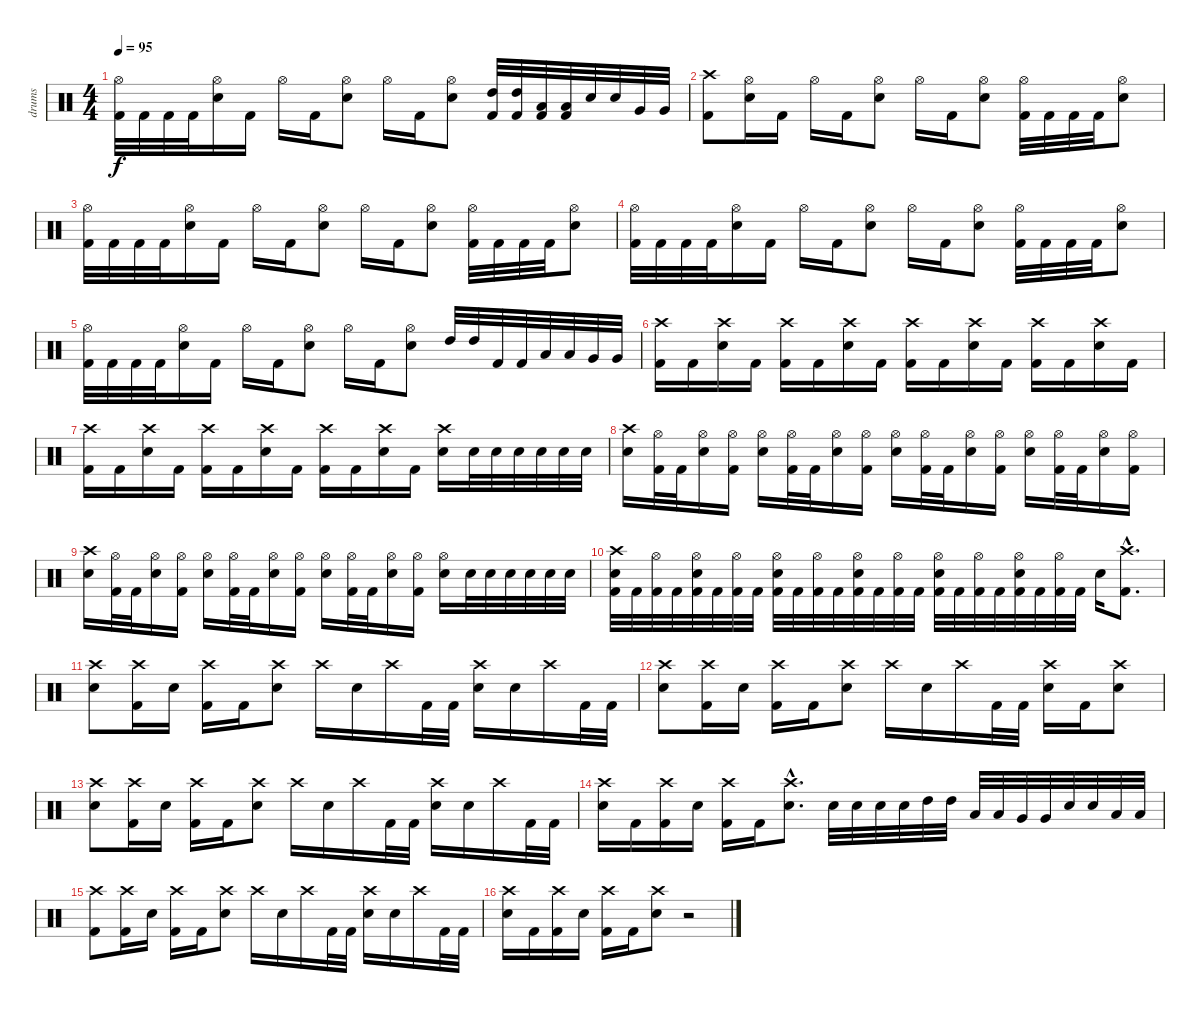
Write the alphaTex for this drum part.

\track ("drums" "drums") {instrument percussion}
\staff {score}
\articulation defaults
\ts (4 4)
\tempo 95
\clef neutral
\ks c
("Hi-Hat (open)" "Kick (hit) 2").32{dy f} "Kick (hit) 2".32 "Kick (hit) 2".32 "Kick (hit) 2".32 ("Hi-Hat (open)" "Electric Snare (hit)").16 "Kick (hit) 2".16 "Hi-Hat (open)".16 "Kick (hit) 2".16 ("Hi-Hat (open)" "Electric Snare (hit)").8 "Hi-Hat (open)".16 "Kick (hit) 2".16 ("Hi-Hat (open)" "Electric Snare (hit)").8 ("High Tom (hit)" "Kick (hit) 2").32 ("High Tom (hit)" "Kick (hit) 2").32 ("Low Tom (hit)" "Kick (hit) 2").32 ("Low Tom (hit)" "Kick (hit) 2").32 "Electric Snare (hit)".32 "Electric Snare (hit)".32 "Very Low Tom (hit)".32 "Very Low Tom (hit)".32 |
("Crash high (hit)" "Kick (hit) 2").8 ("Hi-Hat (open)" "Electric Snare (hit)").16 "Kick (hit) 2".16 "Hi-Hat (open)".16 "Kick (hit) 2".16 ("Hi-Hat (open)" "Electric Snare (hit)").8 "Hi-Hat (open)".16 "Kick (hit) 2".16 ("Hi-Hat (open)" "Electric Snare (hit)").8 ("Hi-Hat (open)" "Kick (hit) 2").32 "Kick (hit) 2".32 "Kick (hit) 2".32 "Kick (hit) 2".32 ("Hi-Hat (open)" "Electric Snare (hit)").8 |
("Hi-Hat (open)" "Kick (hit) 2").32 "Kick (hit) 2".32 "Kick (hit) 2".32 "Kick (hit) 2".32 ("Hi-Hat (open)" "Electric Snare (hit)").16 "Kick (hit) 2".16 "Hi-Hat (open)".16 "Kick (hit) 2".16 ("Hi-Hat (open)" "Electric Snare (hit)").8 "Hi-Hat (open)".16 "Kick (hit) 2".16 ("Hi-Hat (open)" "Electric Snare (hit)").8 ("Hi-Hat (open)" "Kick (hit) 2").32 "Kick (hit) 2".32 "Kick (hit) 2".32 "Kick (hit) 2".32 ("Hi-Hat (open)" "Electric Snare (hit)").8 |
("Hi-Hat (open)" "Kick (hit) 2").32 "Kick (hit) 2".32 "Kick (hit) 2".32 "Kick (hit) 2".32 ("Hi-Hat (open)" "Electric Snare (hit)").16 "Kick (hit) 2".16 "Hi-Hat (open)".16 "Kick (hit) 2".16 ("Hi-Hat (open)" "Electric Snare (hit)").8 "Hi-Hat (open)".16 "Kick (hit) 2".16 ("Hi-Hat (open)" "Electric Snare (hit)").8 ("Hi-Hat (open)" "Kick (hit) 2").32 "Kick (hit) 2".32 "Kick (hit) 2".32 "Kick (hit) 2".32 ("Hi-Hat (open)" "Electric Snare (hit)").8 |
("Hi-Hat (open)" "Kick (hit) 2").32 "Kick (hit) 2".32 "Kick (hit) 2".32 "Kick (hit) 2".32 ("Hi-Hat (open)" "Electric Snare (hit)").16 "Kick (hit) 2".16 "Hi-Hat (open)".16 "Kick (hit) 2".16 ("Hi-Hat (open)" "Electric Snare (hit)").8 "Hi-Hat (open)".16 "Kick (hit) 2".16 ("Hi-Hat (open)" "Electric Snare (hit)").8 "High Tom (hit)".32 "High Tom (hit)".32 "Kick (hit) 2".32 "Kick (hit) 2".32 "Low Tom (hit)".32 "Low Tom (hit)".32 "Very Low Tom (hit)".32 "Very Low Tom (hit)".32 |
\section ("" "")
("Crash high (hit)" "Kick (hit) 2").16 "Kick (hit) 2".16 ("Crash high (hit)" "Electric Snare (hit)").16 "Kick (hit) 2".16 ("Crash high (hit)" "Kick (hit) 2").16 "Kick (hit) 2".16 ("Crash high (hit)" "Electric Snare (hit)").16 "Kick (hit) 2".16 ("Crash high (hit)" "Kick (hit) 2").16 "Kick (hit) 2".16 ("Crash high (hit)" "Electric Snare (hit)").16 "Kick (hit) 2".16 ("Crash high (hit)" "Kick (hit) 2").16 "Kick (hit) 2".16 ("Crash high (hit)" "Electric Snare (hit)").16 "Kick (hit) 2".16 |
("Crash high (hit)" "Kick (hit) 2").16 "Kick (hit) 2".16 ("Crash high (hit)" "Electric Snare (hit)").16 "Kick (hit) 2".16 ("Crash high (hit)" "Kick (hit) 2").16 "Kick (hit) 2".16 ("Crash high (hit)" "Electric Snare (hit)").16 "Kick (hit) 2".16 ("Crash high (hit)" "Kick (hit) 2").16 "Kick (hit) 2".16 ("Crash high (hit)" "Electric Snare (hit)").16 "Kick (hit) 2".16 ("Crash high (hit)" "Electric Snare (hit)").16 "Electric Snare (hit)".32 "Electric Snare (hit)".32 "Electric Snare (hit)".32 "Electric Snare (hit)".32 "Electric Snare (hit)".32 "Electric Snare (hit)".32 |
("Crash high (hit)" "Electric Snare (hit)").16 ("Hi-Hat (open)" "Kick (hit) 2").32 "Kick (hit) 2".32 ("Hi-Hat (open)" "Electric Snare (hit)").16 ("Hi-Hat (open)" "Kick (hit) 2").16 ("Hi-Hat (open)" "Electric Snare (hit)").16 ("Hi-Hat (open)" "Kick (hit) 2").32 "Kick (hit) 2".32 ("Hi-Hat (open)" "Electric Snare (hit)").16 ("Hi-Hat (open)" "Kick (hit) 2").16 ("Hi-Hat (open)" "Electric Snare (hit)").16 ("Hi-Hat (open)" "Kick (hit) 2").32 "Kick (hit) 2".32 ("Hi-Hat (open)" "Electric Snare (hit)").16 ("Hi-Hat (open)" "Kick (hit) 2").16 ("Hi-Hat (open)" "Electric Snare (hit)").16 ("Hi-Hat (open)" "Kick (hit) 2").32 "Kick (hit) 2".32 ("Hi-Hat (open)" "Electric Snare (hit)").16 ("Hi-Hat (open)" "Kick (hit) 2").16 |
("Crash high (hit)" "Electric Snare (hit)").16 ("Hi-Hat (open)" "Kick (hit) 2").32 "Kick (hit) 2".32 ("Hi-Hat (open)" "Electric Snare (hit)").16 ("Hi-Hat (open)" "Kick (hit) 2").16 ("Hi-Hat (open)" "Electric Snare (hit)").16 ("Hi-Hat (open)" "Kick (hit) 2").32 "Kick (hit) 2".32 ("Hi-Hat (open)" "Electric Snare (hit)").16 ("Hi-Hat (open)" "Kick (hit) 2").16 ("Hi-Hat (open)" "Electric Snare (hit)").16 ("Hi-Hat (open)" "Kick (hit) 2").32 "Kick (hit) 2".32 ("Hi-Hat (open)" "Electric Snare (hit)").16 ("Hi-Hat (open)" "Kick (hit) 2").16 ("Hi-Hat (open)" "Electric Snare (hit)").16 "Electric Snare (hit)".32 "Electric Snare (hit)".32 "Electric Snare (hit)".32 "Electric Snare (hit)".32 "Electric Snare (hit)".32 "Electric Snare (hit)".32 |
("Crash high (hit)" "Electric Snare (hit)" "Kick (hit) 2").32 "Kick (hit) 2".32 ("Hi-Hat (open)" "Kick (hit) 2").32 "Kick (hit) 2".32 ("Hi-Hat (open)" "Electric Snare (hit)" "Kick (hit) 2").32 "Kick (hit) 2".32 ("Hi-Hat (open)" "Kick (hit) 2").32 "Kick (hit) 2".32 ("Hi-Hat (open)" "Electric Snare (hit)" "Kick (hit) 2").32 "Kick (hit) 2".32 ("Hi-Hat (open)" "Kick (hit) 2").32 "Kick (hit) 2".32 ("Hi-Hat (open)" "Electric Snare (hit)" "Kick (hit) 2").32 "Kick (hit) 2".32 ("Hi-Hat (open)" "Kick (hit) 2").32 "Kick (hit) 2".32 ("Hi-Hat (open)" "Electric Snare (hit)" "Kick (hit) 2").32 "Kick (hit) 2".32 ("Hi-Hat (open)" "Kick (hit) 2").32 "Kick (hit) 2".32 ("Hi-Hat (open)" "Electric Snare (hit)" "Kick (hit) 2").32 "Kick (hit) 2".32 ("Hi-Hat (open)" "Kick (hit) 2").32 "Kick (hit) 2".32 "Electric Snare (hit)".16 ("Crash high (hit)"{hac} "Kick (hit) 2"{hac}).8{d} |
\section ("" "")
("Crash high (hit)" "Electric Snare (hit)").8 ("Crash high (hit)" "Kick (hit) 2").16 "Electric Snare (hit)".16 ("Crash high (hit)" "Kick (hit) 2").16 "Kick (hit) 2".16 ("Crash high (hit)" "Electric Snare (hit)").8 "Crash high (hit)".16 "Electric Snare (hit)".16 "Crash high (hit)".16 "Kick (hit) 2".32 "Kick (hit) 2".32 ("Crash high (hit)" "Electric Snare (hit)").16 "Electric Snare (hit)".16 "Crash high (hit)".16 "Kick (hit) 2".32 "Kick (hit) 2".32 |
("Crash high (hit)" "Electric Snare (hit)").8 ("Crash high (hit)" "Kick (hit) 2").16 "Electric Snare (hit)".16 ("Crash high (hit)" "Kick (hit) 2").16 "Kick (hit) 2".16 ("Crash high (hit)" "Electric Snare (hit)").8 "Crash high (hit)".16 "Electric Snare (hit)".16 "Crash high (hit)".16 "Kick (hit) 2".32 "Kick (hit) 2".32 ("Crash high (hit)" "Electric Snare (hit)").16 "Kick (hit) 2".16 ("Crash high (hit)" "Electric Snare (hit)").8 |
("Crash high (hit)" "Electric Snare (hit)").8 ("Crash high (hit)" "Kick (hit) 2").16 "Electric Snare (hit)".16 ("Crash high (hit)" "Kick (hit) 2").16 "Kick (hit) 2".16 ("Crash high (hit)" "Electric Snare (hit)").8 "Crash high (hit)".16 "Electric Snare (hit)".16 "Crash high (hit)".16 "Kick (hit) 2".32 "Kick (hit) 2".32 ("Crash high (hit)" "Electric Snare (hit)").16 "Electric Snare (hit)".16 "Crash high (hit)".16 "Kick (hit) 2".32 "Kick (hit) 2".32 |
("Crash high (hit)" "Electric Snare (hit)").16 "Kick (hit) 2".16 ("Crash high (hit)" "Kick (hit) 2").16 "Electric Snare (hit)".16 ("Crash high (hit)" "Kick (hit) 2").16 "Kick (hit) 2".16 ("Crash high (hit)"{hac} "Electric Snare (hit)"{hac}).8{d} "Electric Snare (hit)".32 "Electric Snare (hit)".32 "Electric Snare (hit)".32 "Electric Snare (hit)".32 "High Tom (hit)".32 "High Tom (hit)".32 "Low Tom (hit)".32 "Low Tom (hit)".32 "Very Low Tom (hit)".32 "Very Low Tom (hit)".32 "Electric Snare (hit)".32 "Electric Snare (hit)".32 "Low Tom (hit)".32 "Low Tom (hit)".32 |
("Crash high (hit)" "Kick (hit) 2").8 ("Crash high (hit)" "Kick (hit) 2").16 "Electric Snare (hit)".16 ("Crash high (hit)" "Kick (hit) 2").16 "Kick (hit) 2".16 ("Crash high (hit)" "Electric Snare (hit)").8 "Crash high (hit)".16 "Electric Snare (hit)".16 "Crash high (hit)".16 "Kick (hit) 2".32 "Kick (hit) 2".32 ("Crash high (hit)" "Electric Snare (hit)").16 "Electric Snare (hit)".16 "Crash high (hit)".16 "Kick (hit) 2".32 "Kick (hit) 2".32 |
("Crash high (hit)" "Electric Snare (hit)").16 "Kick (hit) 2".16 ("Crash high (hit)" "Kick (hit) 2").16 "Electric Snare (hit)".16 ("Crash high (hit)" "Kick (hit) 2").16 "Kick (hit) 2".16 ("Crash high (hit)" "Electric Snare (hit)").8 r.2
